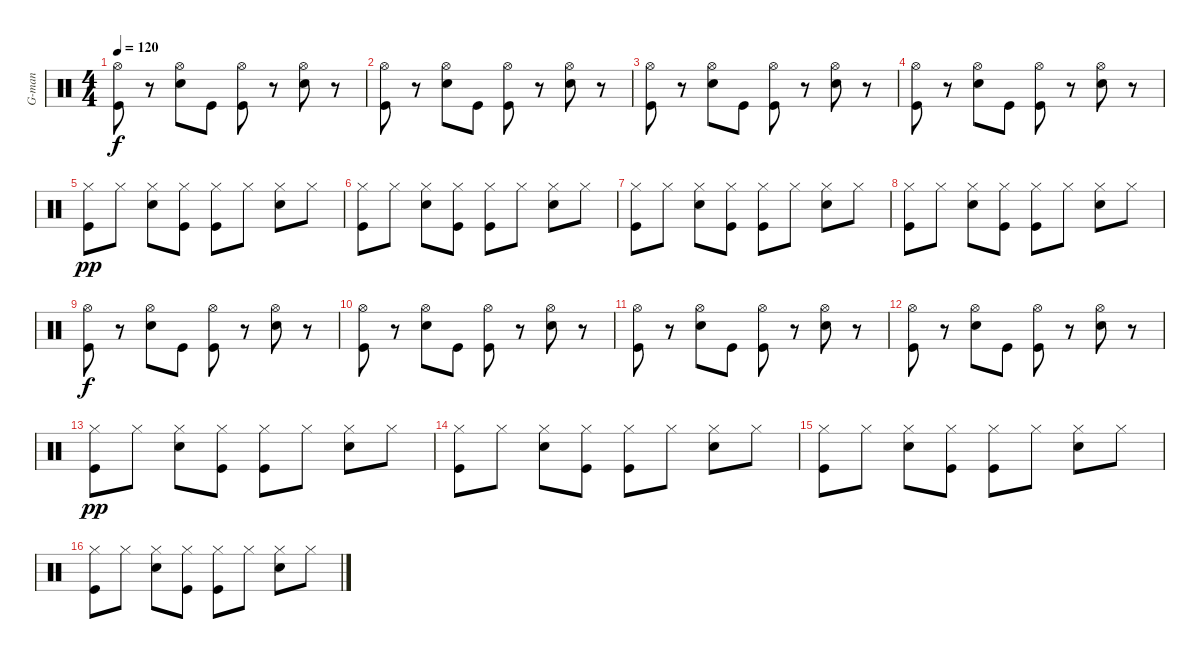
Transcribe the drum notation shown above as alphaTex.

\track ("G-man" "G-man") {instrument percussion}
\staff {score}
\articulation defaults
\ts (4 4)
\tempo 120
\clef neutral
\ks c
("Hi-Hat (open)" "Kick (hit)").8{dy f} r.8 ("Hi-Hat (open)" "Snare (hit) 2").8 "Kick (hit)".8 ("Hi-Hat (open)" "Kick (hit)").8 r.8 ("Hi-Hat (open)" "Snare (hit) 2").8 r.8 |
("Hi-Hat (open)" "Kick (hit)").8 r.8 ("Hi-Hat (open)" "Snare (hit) 2").8 "Kick (hit)".8 ("Hi-Hat (open)" "Kick (hit)").8 r.8 ("Hi-Hat (open)" "Snare (hit) 2").8 r.8 |
("Hi-Hat (open)" "Kick (hit)").8 r.8 ("Hi-Hat (open)" "Snare (hit) 2").8 "Kick (hit)".8 ("Hi-Hat (open)" "Kick (hit)").8 r.8 ("Hi-Hat (open)" "Snare (hit) 2").8 r.8 |
("Hi-Hat (open)" "Kick (hit)").8 r.8 ("Hi-Hat (open)" "Snare (hit) 2").8 "Kick (hit)".8 ("Hi-Hat (open)" "Kick (hit)").8 r.8 ("Hi-Hat (open)" "Snare (hit) 2").8 r.8 |
("Hi-Hat (closed)" "Kick (hit)").8{dy pp} "Hi-Hat (closed)".8 ("Hi-Hat (closed)" "Snare (hit) 2").8 ("Hi-Hat (closed)" "Kick (hit)").8 ("Hi-Hat (closed)" "Kick (hit)").8 "Hi-Hat (closed)".8 ("Hi-Hat (closed)" "Snare (hit) 2").8 "Hi-Hat (closed)".8 |
("Hi-Hat (closed)" "Kick (hit)").8 "Hi-Hat (closed)".8 ("Hi-Hat (closed)" "Snare (hit) 2").8 ("Hi-Hat (closed)" "Kick (hit)").8 ("Hi-Hat (closed)" "Kick (hit)").8 "Hi-Hat (closed)".8 ("Hi-Hat (closed)" "Snare (hit) 2").8 "Hi-Hat (closed)".8 |
("Hi-Hat (closed)" "Kick (hit)").8 "Hi-Hat (closed)".8 ("Hi-Hat (closed)" "Snare (hit) 2").8 ("Hi-Hat (closed)" "Kick (hit)").8 ("Hi-Hat (closed)" "Kick (hit)").8 "Hi-Hat (closed)".8 ("Hi-Hat (closed)" "Snare (hit) 2").8 "Hi-Hat (closed)".8 |
("Hi-Hat (closed)" "Kick (hit)").8 "Hi-Hat (closed)".8 ("Hi-Hat (closed)" "Snare (hit) 2").8 ("Hi-Hat (closed)" "Kick (hit)").8 ("Hi-Hat (closed)" "Kick (hit)").8 "Hi-Hat (closed)".8 ("Hi-Hat (closed)" "Snare (hit) 2").8 "Hi-Hat (closed)".8 |
("Hi-Hat (open)" "Kick (hit)").8{dy f} r.8 ("Hi-Hat (open)" "Snare (hit) 2").8 "Kick (hit)".8 ("Hi-Hat (open)" "Kick (hit)").8 r.8 ("Hi-Hat (open)" "Snare (hit) 2").8 r.8 |
("Hi-Hat (open)" "Kick (hit)").8 r.8 ("Hi-Hat (open)" "Snare (hit) 2").8 "Kick (hit)".8 ("Hi-Hat (open)" "Kick (hit)").8 r.8 ("Hi-Hat (open)" "Snare (hit) 2").8 r.8 |
("Hi-Hat (open)" "Kick (hit)").8 r.8 ("Hi-Hat (open)" "Snare (hit) 2").8 "Kick (hit)".8 ("Hi-Hat (open)" "Kick (hit)").8 r.8 ("Hi-Hat (open)" "Snare (hit) 2").8 r.8 |
("Hi-Hat (open)" "Kick (hit)").8 r.8 ("Hi-Hat (open)" "Snare (hit) 2").8 "Kick (hit)".8 ("Hi-Hat (open)" "Kick (hit)").8 r.8 ("Hi-Hat (open)" "Snare (hit) 2").8 r.8 |
("Hi-Hat (closed)" "Kick (hit)").8{dy pp} "Hi-Hat (closed)".8 ("Hi-Hat (closed)" "Snare (hit) 2").8 ("Hi-Hat (closed)" "Kick (hit)").8 ("Hi-Hat (closed)" "Kick (hit)").8 "Hi-Hat (closed)".8 ("Hi-Hat (closed)" "Snare (hit) 2").8 "Hi-Hat (closed)".8 |
("Hi-Hat (closed)" "Kick (hit)").8 "Hi-Hat (closed)".8 ("Hi-Hat (closed)" "Snare (hit) 2").8 ("Hi-Hat (closed)" "Kick (hit)").8 ("Hi-Hat (closed)" "Kick (hit)").8 "Hi-Hat (closed)".8 ("Hi-Hat (closed)" "Snare (hit) 2").8 "Hi-Hat (closed)".8 |
("Hi-Hat (closed)" "Kick (hit)").8 "Hi-Hat (closed)".8 ("Hi-Hat (closed)" "Snare (hit) 2").8 ("Hi-Hat (closed)" "Kick (hit)").8 ("Hi-Hat (closed)" "Kick (hit)").8 "Hi-Hat (closed)".8 ("Hi-Hat (closed)" "Snare (hit) 2").8 "Hi-Hat (closed)".8 |
("Hi-Hat (closed)" "Kick (hit)").8 "Hi-Hat (closed)".8 ("Hi-Hat (closed)" "Snare (hit) 2").8 ("Hi-Hat (closed)" "Kick (hit)").8 ("Hi-Hat (closed)" "Kick (hit)").8 "Hi-Hat (closed)".8 ("Hi-Hat (closed)" "Snare (hit) 2").8 "Hi-Hat (closed)".8
